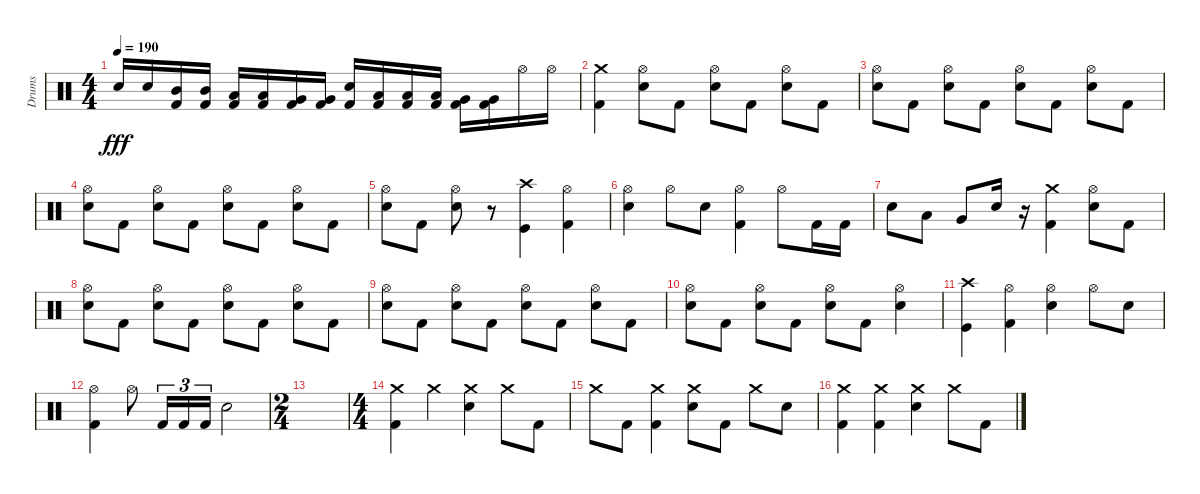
\track ("Drums" "Drums") {instrument percussion}
\staff {score}
\articulation defaults
\ts (4 4)
\tempo 190
\clef neutral
\ks c "Electric Snare (hit)".16{dy fff} "Electric Snare (hit)".16
("Mid Tom (hit)" "Kick (hit) 2").16 ("Mid Tom (hit)" "Kick (hit) 2").16 ("Low Tom (hit)" "Kick (hit) 2").16 ("Low Tom (hit)" "Kick (hit) 2").16 ("Very Low Tom (hit)" "Kick (hit) 2").16 ("Very Low Tom (hit)" "Kick (hit) 2").16 ("Electric Snare (hit)" "Kick (hit) 2").16 ("Low Tom (hit)" "Kick (hit) 2").16 ("Low Tom (hit)" "Kick (hit) 2").16 ("Low Tom (hit)" "Kick (hit) 2").16 ("Very Low Tom (hit)" "Kick (hit) 2").16 ("Kick (hit) 2" "Very Low Tom (hit)").16 "Hi-Hat (open)".16 "Hi-Hat (open)".16 |
("Crash medium (hit)" "Kick (hit) 2").4 ("Hi-Hat (open)" "Electric Snare (hit)").8 "Kick (hit) 2".8 ("Hi-Hat (open)" "Electric Snare (hit)").8 "Kick (hit) 2".8 ("Hi-Hat (open)" "Electric Snare (hit)").8 "Kick (hit) 2".8 |
("Hi-Hat (open)" "Electric Snare (hit)").8 "Kick (hit) 2".8 ("Hi-Hat (open)" "Electric Snare (hit)").8 "Kick (hit) 2".8 ("Hi-Hat (open)" "Electric Snare (hit)").8 "Kick (hit) 2".8 ("Hi-Hat (open)" "Electric Snare (hit)").8 "Kick (hit) 2".8 |
("Hi-Hat (open)" "Electric Snare (hit)").8 "Kick (hit) 2".8 ("Hi-Hat (open)" "Electric Snare (hit)").8 "Kick (hit) 2".8 ("Hi-Hat (open)" "Electric Snare (hit)").8 "Kick (hit) 2".8 ("Hi-Hat (open)" "Electric Snare (hit)").8 "Kick (hit) 2".8 |
("Hi-Hat (open)" "Electric Snare (hit)").8 "Kick (hit) 2".8 ("Hi-Hat (open)" "Electric Snare (hit)").8 r.8 ("Crash high (hit)" "Kick (hit)").4 ("Kick (hit) 2" "Hi-Hat (open)").4 |
("Hi-Hat (open)" "Electric Snare (hit)").4 "Hi-Hat (open)".8 "Electric Snare (hit)".8 ("Hi-Hat (open)" "Kick (hit) 2").4 "Hi-Hat (open)".8 "Kick (hit) 2".16 "Kick (hit) 2".16 |
"Electric Snare (hit)".8 "Low Tom (hit)".8 "Very Low Tom (hit)".8 "Electric Snare (hit)".16 r.16 ("Kick (hit) 2" "Crash medium (hit)").4 ("Hi-Hat (open)" "Electric Snare (hit)").8 "Kick (hit) 2".8 |
("Hi-Hat (open)" "Electric Snare (hit)").8 "Kick (hit) 2".8 ("Hi-Hat (open)" "Electric Snare (hit)").8 "Kick (hit) 2".8 ("Hi-Hat (open)" "Electric Snare (hit)").8 "Kick (hit) 2".8 ("Hi-Hat (open)" "Electric Snare (hit)").8 "Kick (hit) 2".8 |
("Hi-Hat (open)" "Electric Snare (hit)").8 "Kick (hit) 2".8 ("Hi-Hat (open)" "Electric Snare (hit)").8 "Kick (hit) 2".8 ("Hi-Hat (open)" "Electric Snare (hit)").8 "Kick (hit) 2".8 ("Hi-Hat (open)" "Electric Snare (hit)").8 "Kick (hit) 2".8 |
("Hi-Hat (open)" "Electric Snare (hit)").8 "Kick (hit) 2".8 ("Hi-Hat (open)" "Electric Snare (hit)").8 "Kick (hit) 2".8 ("Hi-Hat (open)" "Electric Snare (hit)").8 "Kick (hit) 2".8 ("Hi-Hat (open)" "Electric Snare (hit)").4 |
("Crash high (hit)" "Kick (hit)").4 ("Kick (hit) 2" "Hi-Hat (open)").4 ("Hi-Hat (open)" "Electric Snare (hit)").4 "Hi-Hat (open)".8 "Electric Snare (hit)".8 |
("Hi-Hat (open)" "Kick (hit) 2").4 "Hi-Hat (open)".8 "Kick (hit) 2".16{tu (3 2)} "Kick (hit) 2".16{tu (3 2)} "Kick (hit) 2".16{tu (3 2)} "Electric Snare (hit)".2 |
\ts (2 4)
|
\ts (4 4)
("Kick (hit) 2" "Crash medium (hit)").4 "Crash medium (hit)".4 ("Crash medium (hit)" "Electric Snare (hit)").4 "Crash medium (hit)".8 "Kick (hit) 2".8 |
"Crash medium (hit)".8 "Kick (hit) 2".8 ("Crash medium (hit)" "Kick (hit) 2").4 ("Electric Snare (hit)" "Crash medium (hit)").8 "Kick (hit) 2".8 "Crash medium (hit)".8 "Electric Snare (hit)".8 |
("Kick (hit) 2" "Crash medium (hit)").4 ("Kick (hit) 2" "Crash medium (hit)").4 ("Electric Snare (hit)" "Crash medium (hit)").4 "Crash medium (hit)".8 "Kick (hit) 2".8
